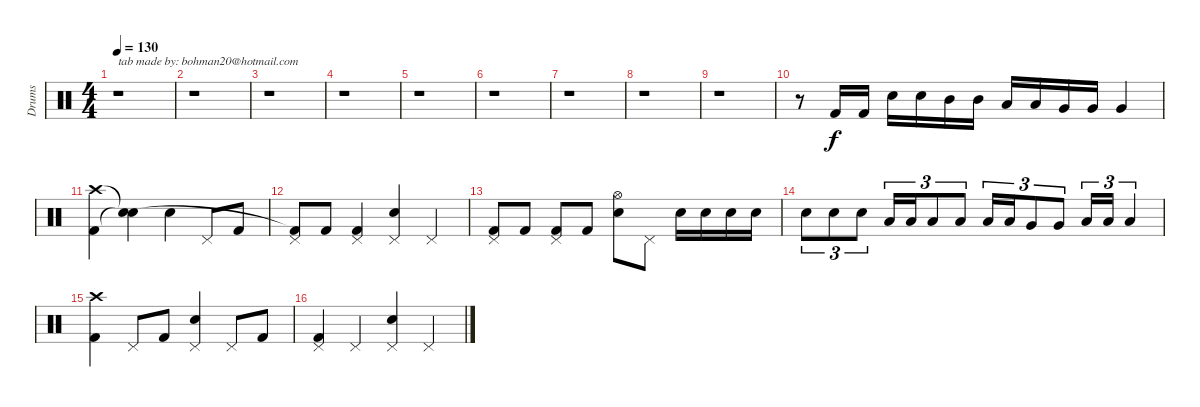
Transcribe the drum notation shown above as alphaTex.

\track ("Drums" "Drums") {instrument percussion}
\staff {score}
\articulation defaults
\ts (4 4)
\tempo 130
\tempo 124
\tempo 130
\clef neutral
\ks c
r.1{txt "tab made by: bohman20@hotmail.com" dy f} |
r.1 |
r.1 |
r.1 |
r.1 |
r.1 |
r.1 |
r.1 |
r.1 |
r.8 "Kick (hit) 2".16 "Kick (hit) 2".16 "Electric Snare (hit)".16 "Electric Snare (hit)".16 "Mid Tom (hit)".16 "Mid Tom (hit)".16 "Low Tom (hit)".16 "Low Tom (hit)".16 "Very Low Tom (hit)".16 "Very Low Tom (hit)".16 "Very Low Tom (hit)".4 |
("Crash high (hit)" "Kick (hit) 2").4 ("Snare (hit)"{t} "Snare (hit)"{t}).4 "Electric Snare (hit)".4 "Pedal Hi-Hat (hit)".8 "Kick (hit) 2".8 |
("Pedal Hi-Hat (hit)" "Kick (hit) 2"{t}).8 "Kick (hit) 2".8 ("Pedal Hi-Hat (hit)" "Kick (hit) 2").4 ("Pedal Hi-Hat (hit)" "Electric Snare (hit)").4 "Pedal Hi-Hat (hit)".4 |
("Pedal Hi-Hat (hit)" "Kick (hit) 2").8 "Kick (hit) 2".8 ("Pedal Hi-Hat (hit)" "Kick (hit) 2").8 "Kick (hit) 2".8 ("Hi-Hat (open)" "Electric Snare (hit)").8 "Pedal Hi-Hat (hit)".8 "Electric Snare (hit)".16 "Electric Snare (hit)".16 "Electric Snare (hit)".16 "Electric Snare (hit)".16 |
"Electric Snare (hit)".8{tu (3 2)} "Electric Snare (hit)".8{tu (3 2)} "Electric Snare (hit)".8{tu (3 2)} "Low Tom (hit)".16{tu (3 2)} "Low Tom (hit)".16{tu (3 2)} "Low Tom (hit)".8{tu (3 2)} "Low Tom (hit)".8{tu (3 2)} "Low Tom (hit)".16{tu (3 2)} "Low Tom (hit)".16{tu (3 2)} "Very Low Tom (hit)".8{tu (3 2)} "Very Low Tom (hit)".8{tu (3 2)} "Low Floor Tom (hit)".16{tu (3 2)} "Low Floor Tom (hit)".16{tu (3 2)} "Low Floor Tom (hit)".4{tu (3 2)} |
("Crash high (hit)" "Kick (hit) 2").4 "Pedal Hi-Hat (hit)".8 "Kick (hit) 2".8 ("Pedal Hi-Hat (hit)" "Electric Snare (hit)").4 "Pedal Hi-Hat (hit)".8 "Kick (hit) 2".8 |
("Pedal Hi-Hat (hit)" "Kick (hit) 2").4 "Pedal Hi-Hat (hit)".4 ("Pedal Hi-Hat (hit)" "Electric Snare (hit)").4 "Pedal Hi-Hat (hit)".4
